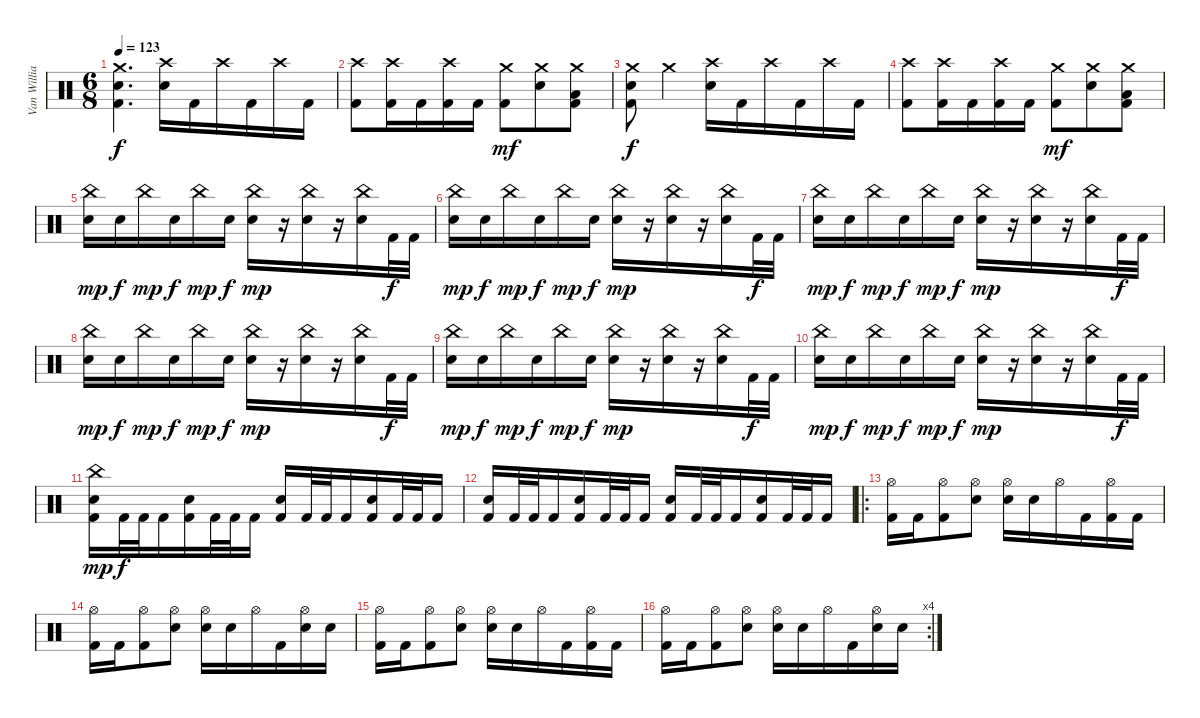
\track ("Van Williams" "Van Willia") {instrument percussion}
\staff {score}
\articulation defaults
\ts (6 8)
\tempo 123
\clef neutral
\ks c
("Crash medium (hit)" "Electric Snare (hit)" "Kick (hit) 2").4{d dy f} ("Crash high (hit)" "Electric Snare (hit)").16 "Kick (hit) 2".16 "Crash high (hit)".16 "Kick (hit) 2".16 "Crash high (hit)".16 "Kick (hit) 2".16 |
("Crash high (hit)" "Kick (hit) 2").8 ("Crash high (hit)" "Kick (hit) 2").16 "Kick (hit) 2".16 ("Crash high (hit)" "Kick (hit) 2").16 "Kick (hit) 2".16 ("Crash medium (hit)" "Kick (hit) 2").8{dy mf} ("Crash medium (hit)" "Electric Snare (hit)").8 ("Crash medium (hit)" "Low Floor Tom (hit)" "Kick (hit) 2").8 |
("Crash medium (hit)" "Electric Snare (hit)" "Kick (hit) 2").8{dy f} "Crash medium (hit)".4 ("Crash high (hit)" "Electric Snare (hit)").16 "Kick (hit) 2".16 "Crash high (hit)".16 "Kick (hit) 2".16 "Crash high (hit)".16 "Kick (hit) 2".16 |
("Crash high (hit)" "Kick (hit) 2").8 ("Crash high (hit)" "Kick (hit) 2").16 "Kick (hit) 2".16 ("Crash high (hit)" "Kick (hit) 2").16 "Kick (hit) 2".16 ("Crash medium (hit)" "Kick (hit) 2").8{dy mf} ("Crash medium (hit)" "Electric Snare (hit)").8 ("Crash medium (hit)" "Low Floor Tom (hit)" "Kick (hit) 2").8 |
("China (hit)" "Electric Snare (hit)").16{dy mp} "Electric Snare (hit)".16{dy f} "China (hit)".16{dy mp} "Electric Snare (hit)".16{dy f} "China (hit)".16{dy mp} "Electric Snare (hit)".16{dy f} ("China (hit)" "Electric Snare (hit)").16{dy mp} r.16 ("China (hit)" "Electric Snare (hit)").16 r.16 ("China (hit)" "Electric Snare (hit)").16 "Kick (hit) 2".32{dy f} "Kick (hit) 2".32 |
("China (hit)" "Electric Snare (hit)").16{dy mp} "Electric Snare (hit)".16{dy f} "China (hit)".16{dy mp} "Electric Snare (hit)".16{dy f} "China (hit)".16{dy mp} "Electric Snare (hit)".16{dy f} ("China (hit)" "Electric Snare (hit)").16{dy mp} r.16 ("China (hit)" "Electric Snare (hit)").16 r.16 ("China (hit)" "Electric Snare (hit)").16 "Kick (hit) 2".32{dy f} "Kick (hit) 2".32 |
("China (hit)" "Electric Snare (hit)").16{dy mp} "Electric Snare (hit)".16{dy f} "China (hit)".16{dy mp} "Electric Snare (hit)".16{dy f} "China (hit)".16{dy mp} "Electric Snare (hit)".16{dy f} ("China (hit)" "Electric Snare (hit)").16{dy mp} r.16 ("China (hit)" "Electric Snare (hit)").16 r.16 ("China (hit)" "Electric Snare (hit)").16 "Kick (hit) 2".32{dy f} "Kick (hit) 2".32 |
("China (hit)" "Electric Snare (hit)").16{dy mp} "Electric Snare (hit)".16{dy f} "China (hit)".16{dy mp} "Electric Snare (hit)".16{dy f} "China (hit)".16{dy mp} "Electric Snare (hit)".16{dy f} ("China (hit)" "Electric Snare (hit)").16{dy mp} r.16 ("China (hit)" "Electric Snare (hit)").16 r.16 ("China (hit)" "Electric Snare (hit)").16 "Kick (hit) 2".32{dy f} "Kick (hit) 2".32 |
("China (hit)" "Electric Snare (hit)").16{dy mp} "Electric Snare (hit)".16{dy f} "China (hit)".16{dy mp} "Electric Snare (hit)".16{dy f} "China (hit)".16{dy mp} "Electric Snare (hit)".16{dy f} ("China (hit)" "Electric Snare (hit)").16{dy mp} r.16 ("China (hit)" "Electric Snare (hit)").16 r.16 ("China (hit)" "Electric Snare (hit)").16 "Kick (hit) 2".32{dy f} "Kick (hit) 2".32 |
("China (hit)" "Electric Snare (hit)").16{dy mp} "Electric Snare (hit)".16{dy f} "China (hit)".16{dy mp} "Electric Snare (hit)".16{dy f} "China (hit)".16{dy mp} "Electric Snare (hit)".16{dy f} ("China (hit)" "Electric Snare (hit)").16{dy mp} r.16 ("China (hit)" "Electric Snare (hit)").16 r.16 ("China (hit)" "Electric Snare (hit)").16 "Kick (hit) 2".32{dy f} "Kick (hit) 2".32 |
("China (hit)" "Electric Snare (hit)" "Kick (hit) 2").16{dy mp} "Kick (hit) 2".32{dy f} "Kick (hit) 2".32 "Kick (hit) 2".16 ("Electric Snare (hit)" "Kick (hit) 2").16 "Kick (hit) 2".32 "Kick (hit) 2".32 "Kick (hit) 2".16 ("Electric Snare (hit)" "Kick (hit) 2").16 "Kick (hit) 2".32 "Kick (hit) 2".32 "Kick (hit) 2".16 ("Electric Snare (hit)" "Kick (hit) 2").16 "Kick (hit) 2".32 "Kick (hit) 2".32 "Kick (hit) 2".16 |
("Electric Snare (hit)" "Kick (hit) 2").16 "Kick (hit) 2".32 "Kick (hit) 2".32 "Kick (hit) 2".16 ("Electric Snare (hit)" "Kick (hit) 2").16 "Kick (hit) 2".32 "Kick (hit) 2".32 "Kick (hit) 2".16 ("Electric Snare (hit)" "Kick (hit) 2").16 "Kick (hit) 2".32 "Kick (hit) 2".32 "Kick (hit) 2".16 ("Electric Snare (hit)" "Kick (hit) 2").16 "Kick (hit) 2".32 "Kick (hit) 2".32 "Kick (hit) 2".16 |
\ro
("Hi-Hat (open)" "Kick (hit) 2").16 "Kick (hit) 2".16 ("Hi-Hat (open)" "Kick (hit) 2").8 ("Hi-Hat (open)" "Electric Snare (hit)").8 ("Hi-Hat (open)" "Electric Snare (hit)").16 "Electric Snare (hit)".16 "Hi-Hat (open)".16 "Kick (hit) 2".16 ("Hi-Hat (open)" "Kick (hit) 2").16 "Kick (hit) 2".16 |
("Hi-Hat (open)" "Kick (hit) 2").16 "Kick (hit) 2".16 ("Hi-Hat (open)" "Kick (hit) 2").8 ("Hi-Hat (open)" "Electric Snare (hit)").8 ("Hi-Hat (open)" "Electric Snare (hit)").16 "Electric Snare (hit)".16 "Hi-Hat (open)".16 "Kick (hit) 2".16 ("Hi-Hat (open)" "Electric Snare (hit)").16 "Electric Snare (hit)".16 |
("Hi-Hat (open)" "Kick (hit) 2").16 "Kick (hit) 2".16 ("Hi-Hat (open)" "Kick (hit) 2").8 ("Hi-Hat (open)" "Electric Snare (hit)").8 ("Hi-Hat (open)" "Electric Snare (hit)").16 "Electric Snare (hit)".16 "Hi-Hat (open)".16 "Kick (hit) 2".16 ("Hi-Hat (open)" "Kick (hit) 2").16 "Kick (hit) 2".16 |
\rc 4
("Hi-Hat (open)" "Kick (hit) 2").16 "Kick (hit) 2".16 ("Hi-Hat (open)" "Kick (hit) 2").8 ("Hi-Hat (open)" "Electric Snare (hit)").8 ("Hi-Hat (open)" "Electric Snare (hit)").16 "Electric Snare (hit)".16 "Hi-Hat (open)".16 "Kick (hit) 2".16 ("Hi-Hat (open)" "Electric Snare (hit)").16 "Electric Snare (hit)".16
